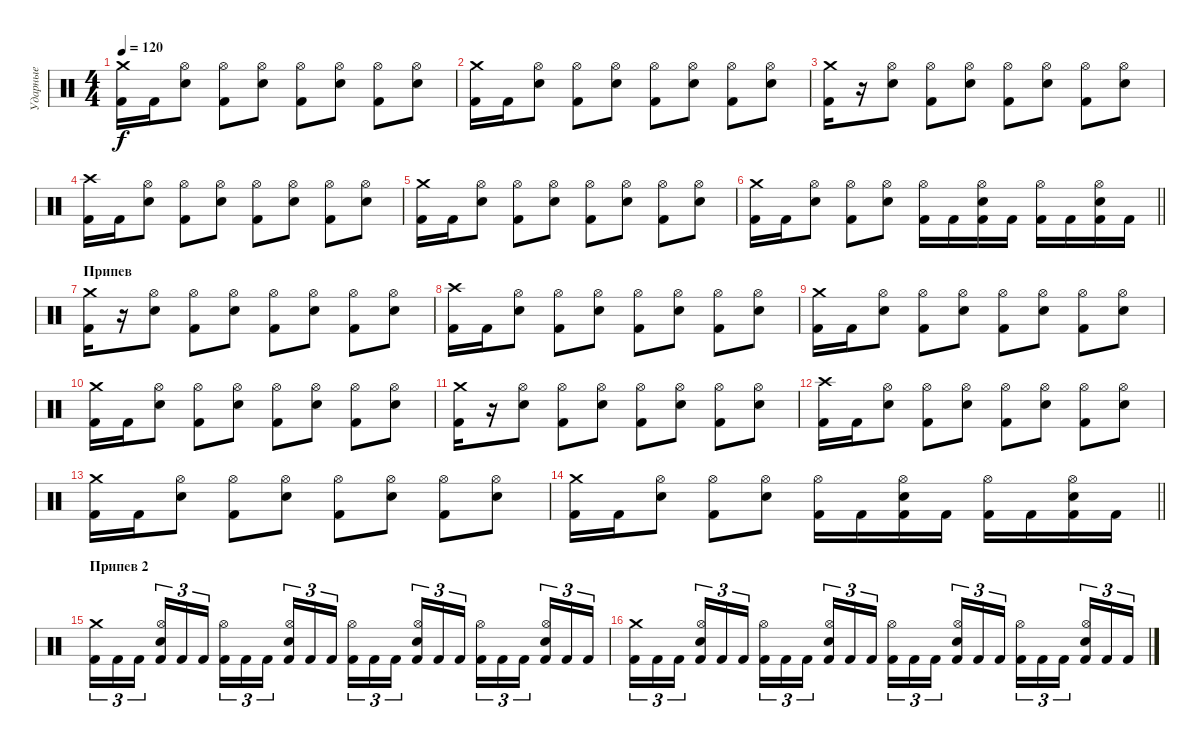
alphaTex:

\track ("Ударные" "Ударные") {instrument percussion}
\staff {score}
\articulation defaults
\ts (4 4)
\tempo 120
\clef neutral
\ks c
("Crash medium (hit)" "Kick (hit) 2").16{dy f} "Kick (hit) 2".16 ("Hi-Hat (open)" "Snare (hit) 2").8 ("Hi-Hat (open)" "Kick (hit) 2").8 ("Hi-Hat (open)" "Snare (hit) 2").8 ("Hi-Hat (open)" "Kick (hit) 2").8 ("Hi-Hat (open)" "Snare (hit) 2").8 ("Hi-Hat (open)" "Kick (hit) 2").8 ("Hi-Hat (open)" "Snare (hit) 2").8 |
("Crash medium (hit)" "Kick (hit) 2").16 "Kick (hit) 2".16 ("Hi-Hat (open)" "Snare (hit) 2").8 ("Hi-Hat (open)" "Kick (hit) 2").8 ("Hi-Hat (open)" "Snare (hit) 2").8 ("Hi-Hat (open)" "Kick (hit) 2").8 ("Hi-Hat (open)" "Snare (hit) 2").8 ("Hi-Hat (open)" "Kick (hit) 2").8 ("Hi-Hat (open)" "Snare (hit) 2").8 |
("Crash medium (hit)" "Kick (hit) 2").16 r.16 ("Hi-Hat (open)" "Snare (hit) 2").8 ("Hi-Hat (open)" "Kick (hit) 2").8 ("Hi-Hat (open)" "Snare (hit) 2").8 ("Hi-Hat (open)" "Kick (hit) 2").8 ("Hi-Hat (open)" "Snare (hit) 2").8 ("Hi-Hat (open)" "Kick (hit) 2").8 ("Hi-Hat (open)" "Snare (hit) 2").8 |
("Crash high (hit)" "Kick (hit) 2").16 "Kick (hit) 2".16 ("Hi-Hat (open)" "Snare (hit) 2").8 ("Hi-Hat (open)" "Kick (hit) 2").8 ("Hi-Hat (open)" "Snare (hit) 2").8 ("Hi-Hat (open)" "Kick (hit) 2").8 ("Hi-Hat (open)" "Snare (hit) 2").8 ("Hi-Hat (open)" "Kick (hit) 2").8 ("Hi-Hat (open)" "Snare (hit) 2").8 |
("Crash medium (hit)" "Kick (hit) 2").16 "Kick (hit) 2".16 ("Hi-Hat (open)" "Snare (hit) 2").8 ("Hi-Hat (open)" "Kick (hit) 2").8 ("Hi-Hat (open)" "Snare (hit) 2").8 ("Hi-Hat (open)" "Kick (hit) 2").8 ("Hi-Hat (open)" "Snare (hit) 2").8 ("Hi-Hat (open)" "Kick (hit) 2").8 ("Hi-Hat (open)" "Snare (hit) 2").8 |
\barLineRight lightlight
("Crash medium (hit)" "Kick (hit) 2").16 "Kick (hit) 2".16 ("Hi-Hat (open)" "Snare (hit) 2").8 ("Hi-Hat (open)" "Kick (hit) 2").8 ("Hi-Hat (open)" "Snare (hit) 2").8 ("Hi-Hat (open)" "Kick (hit) 2").16 "Kick (hit) 2".16 ("Hi-Hat (open)" "Snare (hit) 2" "Kick (hit) 2").16 "Kick (hit) 2".16 ("Hi-Hat (open)" "Kick (hit) 2").16 "Kick (hit) 2".16 ("Hi-Hat (open)" "Snare (hit) 2" "Kick (hit) 2").16 "Kick (hit) 2".16 |
\section ("" "Припев")
("Crash medium (hit)" "Kick (hit) 2").16 r.16 ("Hi-Hat (open)" "Snare (hit) 2").8 ("Hi-Hat (open)" "Kick (hit) 2").8 ("Hi-Hat (open)" "Snare (hit) 2").8 ("Hi-Hat (open)" "Kick (hit) 2").8 ("Hi-Hat (open)" "Snare (hit) 2").8 ("Hi-Hat (open)" "Kick (hit) 2").8 ("Hi-Hat (open)" "Snare (hit) 2").8 |
("Crash high (hit)" "Kick (hit) 2").16 "Kick (hit) 2".16 ("Hi-Hat (open)" "Snare (hit) 2").8 ("Hi-Hat (open)" "Kick (hit) 2").8 ("Hi-Hat (open)" "Snare (hit) 2").8 ("Hi-Hat (open)" "Kick (hit) 2").8 ("Hi-Hat (open)" "Snare (hit) 2").8 ("Hi-Hat (open)" "Kick (hit) 2").8 ("Hi-Hat (open)" "Snare (hit) 2").8 |
("Crash medium (hit)" "Kick (hit) 2").16 "Kick (hit) 2".16 ("Hi-Hat (open)" "Snare (hit) 2").8 ("Hi-Hat (open)" "Kick (hit) 2").8 ("Hi-Hat (open)" "Snare (hit) 2").8 ("Hi-Hat (open)" "Kick (hit) 2").8 ("Hi-Hat (open)" "Snare (hit) 2").8 ("Hi-Hat (open)" "Kick (hit) 2").8 ("Hi-Hat (open)" "Snare (hit) 2").8 |
("Crash medium (hit)" "Kick (hit) 2").16 "Kick (hit) 2".16 ("Hi-Hat (open)" "Snare (hit) 2").8 ("Hi-Hat (open)" "Kick (hit) 2").8 ("Hi-Hat (open)" "Snare (hit) 2").8 ("Hi-Hat (open)" "Kick (hit) 2").8 ("Hi-Hat (open)" "Snare (hit) 2").8 ("Hi-Hat (open)" "Kick (hit) 2").8 ("Hi-Hat (open)" "Snare (hit) 2").8 |
("Crash medium (hit)" "Kick (hit) 2").16 r.16 ("Hi-Hat (open)" "Snare (hit) 2").8 ("Hi-Hat (open)" "Kick (hit) 2").8 ("Hi-Hat (open)" "Snare (hit) 2").8 ("Hi-Hat (open)" "Kick (hit) 2").8 ("Hi-Hat (open)" "Snare (hit) 2").8 ("Hi-Hat (open)" "Kick (hit) 2").8 ("Hi-Hat (open)" "Snare (hit) 2").8 |
("Crash high (hit)" "Kick (hit) 2").16 "Kick (hit) 2".16 ("Hi-Hat (open)" "Snare (hit) 2").8 ("Hi-Hat (open)" "Kick (hit) 2").8 ("Hi-Hat (open)" "Snare (hit) 2").8 ("Hi-Hat (open)" "Kick (hit) 2").8 ("Hi-Hat (open)" "Snare (hit) 2").8 ("Hi-Hat (open)" "Kick (hit) 2").8 ("Hi-Hat (open)" "Snare (hit) 2").8 |
("Crash medium (hit)" "Kick (hit) 2").16 "Kick (hit) 2".16 ("Hi-Hat (open)" "Snare (hit) 2").8 ("Hi-Hat (open)" "Kick (hit) 2").8 ("Hi-Hat (open)" "Snare (hit) 2").8 ("Hi-Hat (open)" "Kick (hit) 2").8 ("Hi-Hat (open)" "Snare (hit) 2").8 ("Hi-Hat (open)" "Kick (hit) 2").8 ("Hi-Hat (open)" "Snare (hit) 2").8 |
\barLineRight lightlight
("Crash medium (hit)" "Kick (hit) 2").16 "Kick (hit) 2".16 ("Hi-Hat (open)" "Snare (hit) 2").8 ("Hi-Hat (open)" "Kick (hit) 2").8 ("Hi-Hat (open)" "Snare (hit) 2").8 ("Hi-Hat (open)" "Kick (hit) 2").16 "Kick (hit) 2".16 ("Hi-Hat (open)" "Snare (hit) 2" "Kick (hit) 2").16 "Kick (hit) 2".16 ("Hi-Hat (open)" "Kick (hit) 2").16 "Kick (hit) 2".16 ("Hi-Hat (open)" "Snare (hit) 2" "Kick (hit) 2").16 "Kick (hit) 2".16 |
\section ("" "Припев 2")
("Crash medium (hit)" "Kick (hit) 2").16{tu (3 2)} "Kick (hit) 2".16{tu (3 2)} "Kick (hit) 2".16{tu (3 2) beam splitsecondary} ("Snare (hit) 2" "Kick (hit) 2" "Hi-Hat (open)").16{tu (3 2)} "Kick (hit) 2".16{tu (3 2)} "Kick (hit) 2".16{tu (3 2)} ("Hi-Hat (open)" "Kick (hit) 2").16{tu (3 2)} "Kick (hit) 2".16{tu (3 2)} "Kick (hit) 2".16{tu (3 2) beam splitsecondary} ("Snare (hit) 2" "Kick (hit) 2" "Hi-Hat (open)").16{tu (3 2)} "Kick (hit) 2".16{tu (3 2)} "Kick (hit) 2".16{tu (3 2)} ("Hi-Hat (open)" "Kick (hit) 2").16{tu (3 2)} "Kick (hit) 2".16{tu (3 2)} "Kick (hit) 2".16{tu (3 2) beam splitsecondary} ("Snare (hit) 2" "Kick (hit) 2" "Hi-Hat (open)").16{tu (3 2)} "Kick (hit) 2".16{tu (3 2)} "Kick (hit) 2".16{tu (3 2)} ("Hi-Hat (open)" "Kick (hit) 2").16{tu (3 2)} "Kick (hit) 2".16{tu (3 2)} "Kick (hit) 2".16{tu (3 2) beam splitsecondary} ("Snare (hit) 2" "Kick (hit) 2" "Hi-Hat (open)").16{tu (3 2)} "Kick (hit) 2".16{tu (3 2)} "Kick (hit) 2".16{tu (3 2)} |
("Crash medium (hit)" "Kick (hit) 2").16{tu (3 2)} "Kick (hit) 2".16{tu (3 2)} "Kick (hit) 2".16{tu (3 2) beam splitsecondary} ("Snare (hit) 2" "Kick (hit) 2" "Hi-Hat (open)").16{tu (3 2)} "Kick (hit) 2".16{tu (3 2)} "Kick (hit) 2".16{tu (3 2)} ("Hi-Hat (open)" "Kick (hit) 2").16{tu (3 2)} "Kick (hit) 2".16{tu (3 2)} "Kick (hit) 2".16{tu (3 2) beam splitsecondary} ("Snare (hit) 2" "Kick (hit) 2" "Hi-Hat (open)").16{tu (3 2)} "Kick (hit) 2".16{tu (3 2)} "Kick (hit) 2".16{tu (3 2)} ("Hi-Hat (open)" "Kick (hit) 2").16{tu (3 2)} "Kick (hit) 2".16{tu (3 2)} "Kick (hit) 2".16{tu (3 2) beam splitsecondary} ("Snare (hit) 2" "Kick (hit) 2" "Hi-Hat (open)").16{tu (3 2)} "Kick (hit) 2".16{tu (3 2)} "Kick (hit) 2".16{tu (3 2)} ("Hi-Hat (open)" "Kick (hit) 2").16{tu (3 2)} "Kick (hit) 2".16{tu (3 2)} "Kick (hit) 2".16{tu (3 2) beam splitsecondary} ("Snare (hit) 2" "Kick (hit) 2" "Hi-Hat (open)").16{tu (3 2)} "Kick (hit) 2".16{tu (3 2)} "Kick (hit) 2".16{tu (3 2)}
